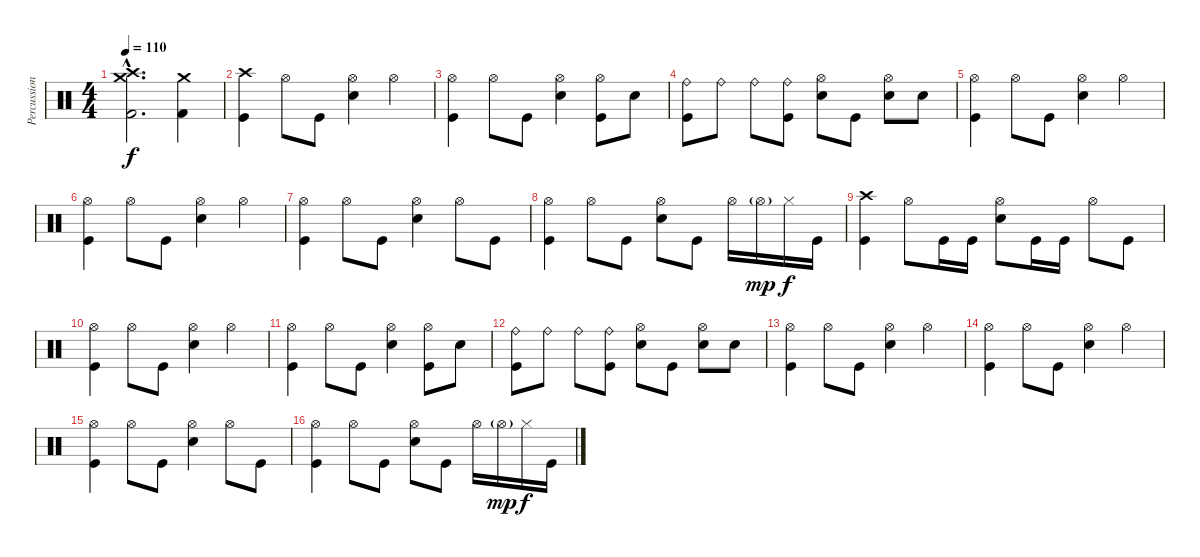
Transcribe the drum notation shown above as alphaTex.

\track ("Percussion" "Percussion") {instrument percussion}
\staff {score}
\articulation defaults
\ts (4 4)
\tempo 110
\clef neutral
\ks c
("Crash high (hit)"{hac} "Crash medium (hit)"{hac} "Kick (hit) 2"{hac}).2{d dy f} ("Crash medium (hit)" "Kick (hit) 2").4 |
("Crash high (hit)" "Kick (hit)").4 "Hi-Hat (open)".8 "Kick (hit)".8 ("Hi-Hat (open)" "Snare (hit) 2").4 "Hi-Hat (open)".4 |
("Hi-Hat (open)" "Kick (hit)").4 "Hi-Hat (open)".8 "Kick (hit)".8 ("Hi-Hat (open)" "Snare (hit) 2").4 ("Hi-Hat (open)" "Kick (hit)").8 "Snare (hit) 2".8 |
("Ride (bell)" "Kick (hit)").8 "Ride (bell)".8 "Ride (bell)".8 ("Ride (bell)" "Kick (hit)").8 ("Hi-Hat (open)" "Snare (hit) 2").8 "Kick (hit)".8 ("Hi-Hat (open)" "Snare (hit) 2").8 "Snare (hit) 2".8 |
("Hi-Hat (open)" "Kick (hit)").4 "Hi-Hat (open)".8 "Kick (hit)".8 ("Hi-Hat (open)" "Snare (hit) 2").4 "Hi-Hat (open)".4 |
("Hi-Hat (open)" "Kick (hit)").4 "Hi-Hat (open)".8 "Kick (hit)".8 ("Hi-Hat (open)" "Snare (hit) 2").4 "Hi-Hat (open)".4 |
("Hi-Hat (open)" "Kick (hit)").4 "Hi-Hat (open)".8 "Kick (hit)".8 ("Hi-Hat (open)" "Snare (hit) 2").4 "Hi-Hat (open)".8 "Kick (hit)".8 |
("Hi-Hat (open)" "Kick (hit)").4 "Hi-Hat (open)".8 "Kick (hit)".8 ("Hi-Hat (open)" "Snare (hit) 2").8 "Kick (hit)".8 "Hi-Hat (open)".16 "Hi-Hat (open)"{g}.16{dy mp} "Hi-Hat (closed)".16{dy f} "Kick (hit)".16 |
("Crash high (hit)" "Kick (hit)").4 "Hi-Hat (open)".8 "Kick (hit)".16 "Kick (hit)".16 ("Hi-Hat (open)" "Snare (hit) 2").8 "Kick (hit)".16 "Kick (hit)".16 "Hi-Hat (open)".8 "Kick (hit)".8 |
("Hi-Hat (open)" "Kick (hit)").4 "Hi-Hat (open)".8 "Kick (hit)".8 ("Hi-Hat (open)" "Snare (hit) 2").4 "Hi-Hat (open)".4 |
("Hi-Hat (open)" "Kick (hit)").4 "Hi-Hat (open)".8 "Kick (hit)".8 ("Hi-Hat (open)" "Snare (hit) 2").4 ("Hi-Hat (open)" "Kick (hit)").8 "Snare (hit) 2".8 |
("Ride (bell)" "Kick (hit)").8 "Ride (bell)".8 "Ride (bell)".8 ("Ride (bell)" "Kick (hit)").8 ("Hi-Hat (open)" "Snare (hit) 2").8 "Kick (hit)".8 ("Hi-Hat (open)" "Snare (hit) 2").8 "Snare (hit) 2".8 |
("Hi-Hat (open)" "Kick (hit)").4 "Hi-Hat (open)".8 "Kick (hit)".8 ("Hi-Hat (open)" "Snare (hit) 2").4 "Hi-Hat (open)".4 |
("Hi-Hat (open)" "Kick (hit)").4 "Hi-Hat (open)".8 "Kick (hit)".8 ("Hi-Hat (open)" "Snare (hit) 2").4 "Hi-Hat (open)".4 |
("Hi-Hat (open)" "Kick (hit)").4 "Hi-Hat (open)".8 "Kick (hit)".8 ("Hi-Hat (open)" "Snare (hit) 2").4 "Hi-Hat (open)".8 "Kick (hit)".8 |
("Hi-Hat (open)" "Kick (hit)").4 "Hi-Hat (open)".8 "Kick (hit)".8 ("Hi-Hat (open)" "Snare (hit) 2").8 "Kick (hit)".8 "Hi-Hat (open)".16 "Hi-Hat (open)"{g}.16{dy mp} "Hi-Hat (closed)".16{dy f} "Kick (hit)".16
